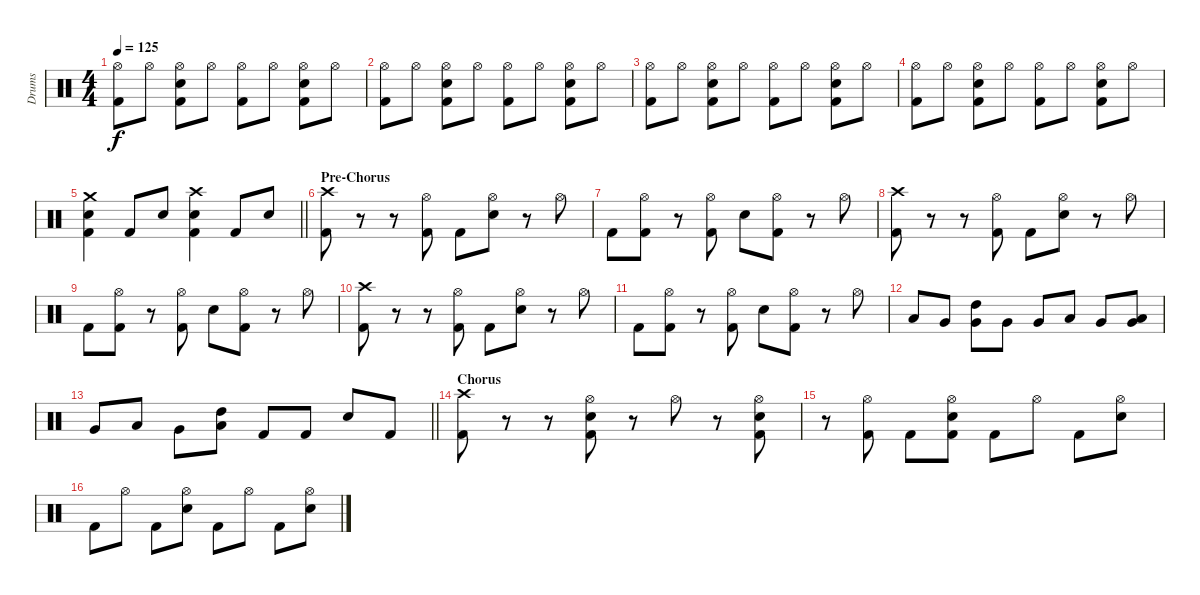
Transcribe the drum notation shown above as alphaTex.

\track ("Drums" "Drums") {instrument percussion}
\staff {score}
\articulation defaults
\ts (4 4)
\tempo 125
\clef neutral
\ks c
("Hi-Hat (open)" "Kick (hit) 2").8{dy f} "Hi-Hat (open)".8 ("Hi-Hat (open)" "Snare (hit) 2" "Kick (hit) 2").8 "Hi-Hat (open)".8 ("Hi-Hat (open)" "Kick (hit) 2").8 "Hi-Hat (open)".8 ("Hi-Hat (open)" "Snare (hit) 2" "Kick (hit) 2").8 "Hi-Hat (open)".8 |
("Hi-Hat (open)" "Kick (hit) 2").8 "Hi-Hat (open)".8 ("Hi-Hat (open)" "Snare (hit) 2" "Kick (hit) 2").8 "Hi-Hat (open)".8 ("Hi-Hat (open)" "Kick (hit) 2").8 "Hi-Hat (open)".8 ("Hi-Hat (open)" "Snare (hit) 2" "Kick (hit) 2").8 "Hi-Hat (open)".8 |
("Hi-Hat (open)" "Kick (hit) 2").8 "Hi-Hat (open)".8 ("Hi-Hat (open)" "Snare (hit) 2" "Kick (hit) 2").8 "Hi-Hat (open)".8 ("Hi-Hat (open)" "Kick (hit) 2").8 "Hi-Hat (open)".8 ("Hi-Hat (open)" "Snare (hit) 2" "Kick (hit) 2").8 "Hi-Hat (open)".8 |
("Hi-Hat (open)" "Kick (hit) 2").8 "Hi-Hat (open)".8 ("Hi-Hat (open)" "Snare (hit) 2" "Kick (hit) 2").8 "Hi-Hat (open)".8 ("Hi-Hat (open)" "Kick (hit) 2").8 "Hi-Hat (open)".8 ("Hi-Hat (open)" "Snare (hit) 2" "Kick (hit) 2").8 "Hi-Hat (open)".8 |
\barLineRight lightlight
("Crash medium (hit)" "Snare (hit) 2" "Kick (hit) 2").4 "Kick (hit) 2".8 "Snare (hit) 2".8 ("Crash high (hit)" "Snare (hit) 2" "Kick (hit) 2").4 "Kick (hit) 2".8 "Snare (hit) 2".8 |
\section ("" "Pre-Chorus")
("Crash high (hit)" "Kick (hit) 2").8 r.8 r.8 ("Hi-Hat (open)" "Kick (hit) 2").8 "Kick (hit) 2".8 ("Hi-Hat (open)" "Snare (hit) 2").8 r.8 "Hi-Hat (open)".8 |
"Kick (hit) 2".8 ("Hi-Hat (open)" "Kick (hit) 2").8 r.8 ("Hi-Hat (open)" "Kick (hit) 2").8 "Snare (hit) 2".8 ("Hi-Hat (open)" "Kick (hit) 2").8 r.8 "Hi-Hat (open)".8 |
("Crash high (hit)" "Kick (hit) 2").8 r.8 r.8 ("Hi-Hat (open)" "Kick (hit) 2").8 "Kick (hit) 2".8 ("Hi-Hat (open)" "Snare (hit) 2").8 r.8 "Hi-Hat (open)".8 |
"Kick (hit) 2".8 ("Hi-Hat (open)" "Kick (hit) 2").8 r.8 ("Hi-Hat (open)" "Kick (hit) 2").8 "Snare (hit) 2".8 ("Hi-Hat (open)" "Kick (hit) 2").8 r.8 "Hi-Hat (open)".8 |
("Crash high (hit)" "Kick (hit) 2").8 r.8 r.8 ("Hi-Hat (open)" "Kick (hit) 2").8 "Kick (hit) 2".8 ("Hi-Hat (open)" "Snare (hit) 2").8 r.8 "Hi-Hat (open)".8 |
"Kick (hit) 2".8 ("Hi-Hat (open)" "Kick (hit) 2").8 r.8 ("Hi-Hat (open)" "Kick (hit) 2").8 "Snare (hit) 2".8 ("Hi-Hat (open)" "Kick (hit) 2").8 r.8 "Hi-Hat (open)".8 |
"Low Tom (hit)".8 "Very Low Tom (hit)".8 ("High Tom (hit)" "Very Low Tom (hit)").8 "Very Low Tom (hit)".8 "Very Low Tom (hit)".8 "Low Floor Tom (hit)".8 "Very Low Tom (hit)".8 ("Low Tom (hit)" "Very Low Tom (hit)").8 |
\barLineRight lightlight "Very Low Tom (hit)".8 "Low Tom (hit)".8 "Very Low Tom (hit)".8
("High Tom (hit)" "Low Tom (hit)").8 "Kick (hit) 2".8 "Kick (hit) 2".8 "Snare (hit) 2".8 "Kick (hit) 2".8 |
\section ("" "Chorus")
("Crash high (hit)" "Kick (hit) 2").8 r.8 r.8 ("Hi-Hat (open)" "Snare (hit) 2" "Kick (hit) 2").8 r.8 "Hi-Hat (open)".8 r.8 ("Hi-Hat (open)" "Snare (hit) 2" "Kick (hit) 2").8 |
r.8 ("Hi-Hat (open)" "Kick (hit) 2").8 "Kick (hit) 2".8 ("Hi-Hat (open)" "Snare (hit) 2" "Kick (hit) 2").8 "Kick (hit) 2".8 "Hi-Hat (open)".8 "Kick (hit) 2".8 ("Hi-Hat (open)" "Snare (hit) 2").8 |
"Kick (hit) 2".8 "Hi-Hat (open)".8 "Kick (hit) 2".8 ("Hi-Hat (open)" "Snare (hit) 2").8 "Kick (hit) 2".8 "Hi-Hat (open)".8 "Kick (hit) 2".8 ("Hi-Hat (open)" "Snare (hit) 2").8
